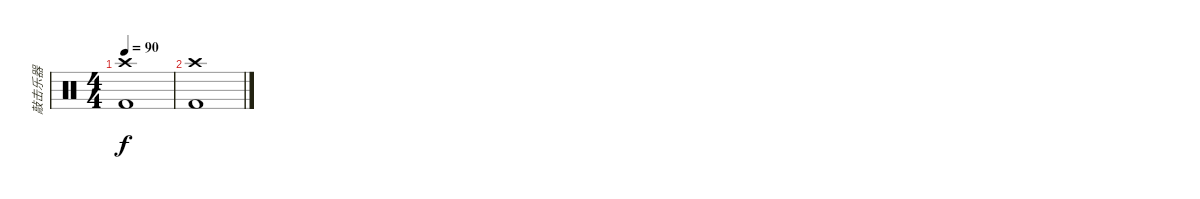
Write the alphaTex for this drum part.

\track ("敲击乐器" "敲击乐器") {instrument percussion}
\staff {score}
\articulation defaults
\ts (4 4)
\tempo 90
\clef neutral
\ks c
("Crash high (hit)" "Kick (hit) 2").1{dy f} |
("Crash high (hit)" "Kick (hit) 2").1
